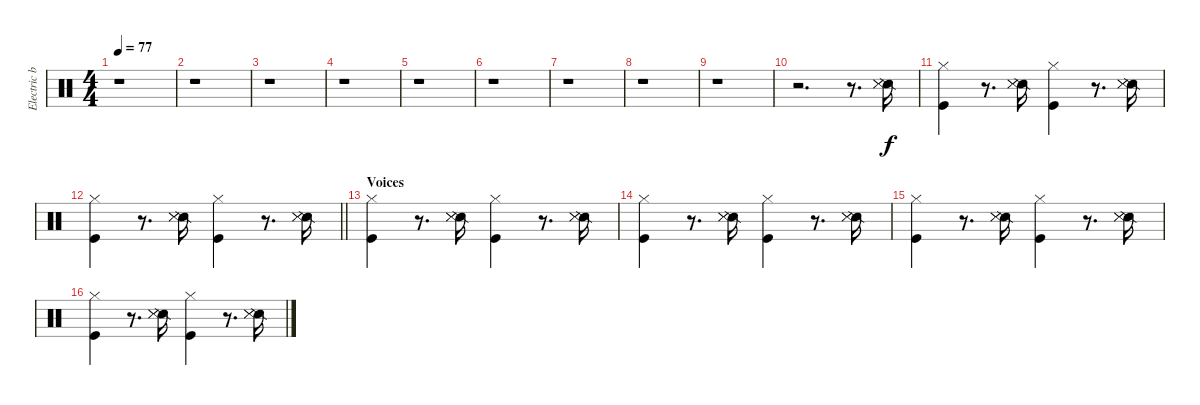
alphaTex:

\track ("Electric beat" "Electric b") {instrument percussion}
\staff {score}
\articulation defaults
\ts (4 4)
\tempo 77
\clef neutral
\ks c
r.1{dy f} |
r.1 |
r.1 |
r.1 |
r.1 |
r.1 |
r.1 |
r.1 |
r.1 |
r.2{d} r.8{d} ("Snare (side stick) 2" "Snare (side stick) 3" "Metronome (hit)").16 |
("Hi-Hat (closed)" "Kick (hit)").4 r.8{d} ("Snare (side stick) 2" "Snare (side stick) 3" "Metronome (hit)").16 ("Hi-Hat (closed)" "Kick (hit)").4 r.8{d} ("Snare (side stick) 2" "Snare (side stick) 3" "Metronome (hit)").16 |
\barLineRight lightlight
("Hi-Hat (closed)" "Kick (hit)").4 r.8{d} ("Snare (side stick) 2" "Snare (side stick) 3" "Metronome (hit)").16 ("Hi-Hat (closed)" "Kick (hit)").4 r.8{d} ("Snare (side stick) 2" "Snare (side stick) 3" "Metronome (hit)").16 |
\section ("" "Voices")
("Hi-Hat (closed)" "Kick (hit)").4 r.8{d} ("Snare (side stick) 2" "Snare (side stick) 3" "Metronome (hit)").16 ("Hi-Hat (closed)" "Kick (hit)").4 r.8{d} ("Snare (side stick) 2" "Snare (side stick) 3" "Metronome (hit)").16 |
("Hi-Hat (closed)" "Kick (hit)").4 r.8{d} ("Snare (side stick) 2" "Snare (side stick) 3" "Metronome (hit)").16 ("Hi-Hat (closed)" "Kick (hit)").4 r.8{d} ("Snare (side stick) 2" "Snare (side stick) 3" "Metronome (hit)").16 |
("Hi-Hat (closed)" "Kick (hit)").4 r.8{d} ("Snare (side stick) 2" "Snare (side stick) 3" "Metronome (hit)").16 ("Hi-Hat (closed)" "Kick (hit)").4 r.8{d} ("Snare (side stick) 2" "Snare (side stick) 3" "Metronome (hit)").16 |
("Hi-Hat (closed)" "Kick (hit)").4 r.8{d} ("Snare (side stick) 2" "Snare (side stick) 3" "Metronome (hit)").16 ("Hi-Hat (closed)" "Kick (hit)").4 r.8{d} ("Snare (side stick) 2" "Snare (side stick) 3" "Metronome (hit)").16
